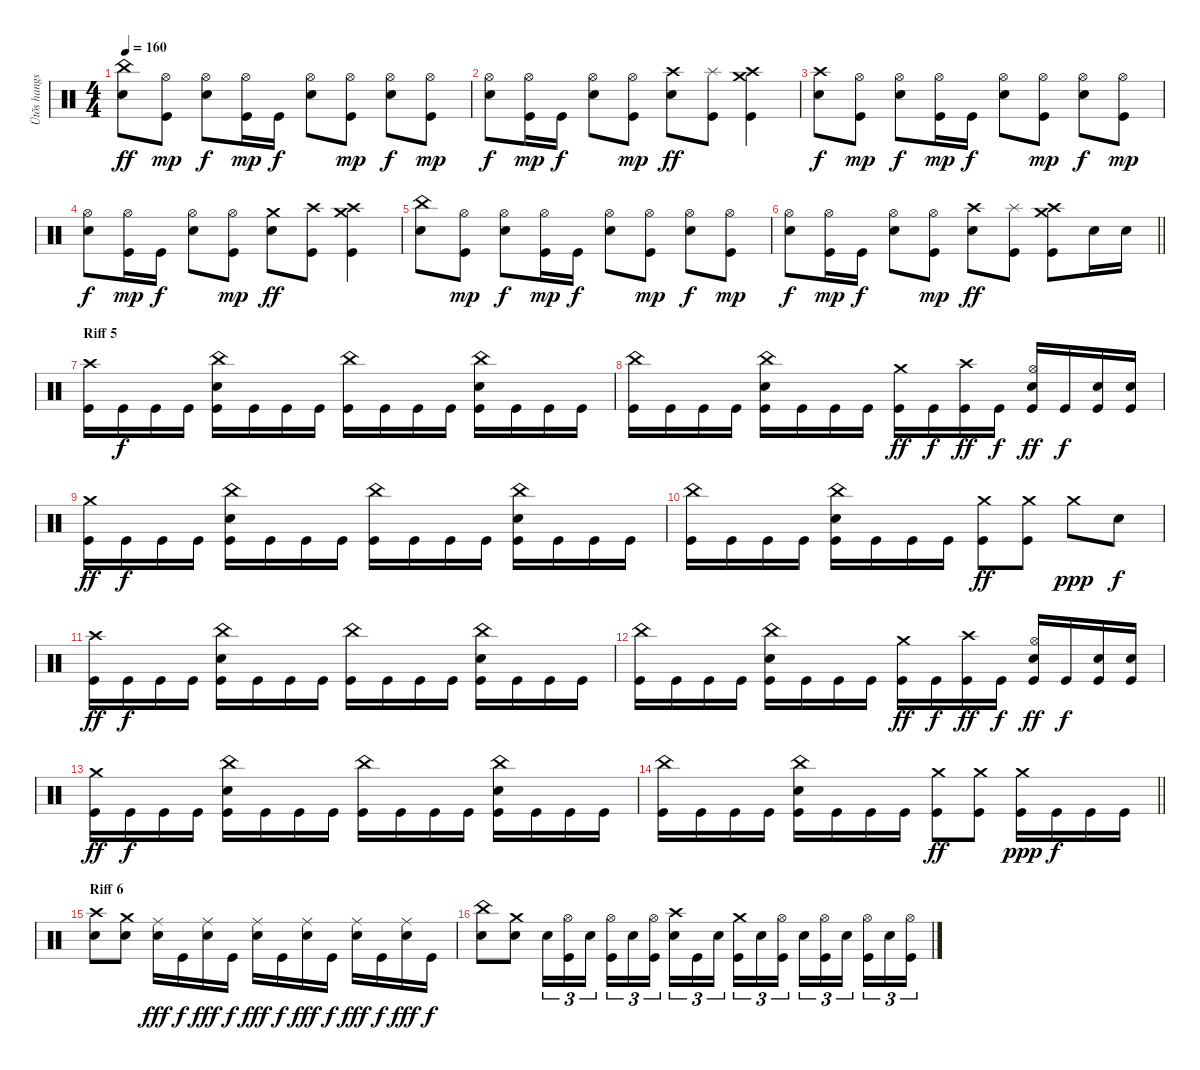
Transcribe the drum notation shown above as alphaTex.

\track ("Ütõs hangszer" "Ütõs hangs") {instrument percussion}
\staff {score}
\articulation defaults
\ts (4 4)
\tempo 160
\clef neutral
\ks c
("China (hit)" "Electric Snare (hit)").8{dy ff} ("Hi-Hat (open)" "Kick (hit)").8{dy mp} ("Hi-Hat (open)" "Electric Snare (hit)").8{dy f} ("Hi-Hat (open)" "Kick (hit)").16{dy mp} "Kick (hit)".16{dy f} ("Hi-Hat (open)" "Electric Snare (hit)").8 ("Hi-Hat (open)" "Kick (hit)").8{dy mp} ("Hi-Hat (open)" "Electric Snare (hit)").8{dy f} ("Hi-Hat (open)" "Kick (hit)").8{dy mp} |
("Hi-Hat (open)" "Electric Snare (hit)").8{dy f} ("Hi-Hat (open)" "Kick (hit)").16{dy mp} "Kick (hit)".16{dy f} ("Hi-Hat (open)" "Electric Snare (hit)").8 ("Hi-Hat (open)" "Kick (hit)").8{dy mp} ("Crash high (hit)" "Electric Snare (hit)").8{dy ff} ("Splash (hit)" "Kick (hit)").8 ("Crash medium (hit)" "Crash high (hit)" "Kick (hit)").4 |
("Crash high (hit)" "Electric Snare (hit)").8{dy f} ("Hi-Hat (open)" "Kick (hit)").8{dy mp} ("Hi-Hat (open)" "Electric Snare (hit)").8{dy f} ("Hi-Hat (open)" "Kick (hit)").16{dy mp} "Kick (hit)".16{dy f} ("Hi-Hat (open)" "Electric Snare (hit)").8 ("Hi-Hat (open)" "Kick (hit)").8{dy mp} ("Hi-Hat (open)" "Electric Snare (hit)").8{dy f} ("Hi-Hat (open)" "Kick (hit)").8{dy mp} |
("Hi-Hat (open)" "Electric Snare (hit)").8{dy f} ("Hi-Hat (open)" "Kick (hit)").16{dy mp} "Kick (hit)".16{dy f} ("Hi-Hat (open)" "Electric Snare (hit)").8 ("Hi-Hat (open)" "Kick (hit)").8{dy mp} ("Crash medium (hit)" "Electric Snare (hit)").8{dy ff} ("Crash high (hit)" "Kick (hit)").8 ("Crash medium (hit)" "Crash high (hit)" "Kick (hit)").4 |
("China (hit)" "Electric Snare (hit)").8 ("Hi-Hat (open)" "Kick (hit)").8{dy mp} ("Hi-Hat (open)" "Electric Snare (hit)").8{dy f} ("Hi-Hat (open)" "Kick (hit)").16{dy mp} "Kick (hit)".16{dy f} ("Hi-Hat (open)" "Electric Snare (hit)").8 ("Hi-Hat (open)" "Kick (hit)").8{dy mp} ("Hi-Hat (open)" "Electric Snare (hit)").8{dy f} ("Hi-Hat (open)" "Kick (hit)").8{dy mp} |
\barLineRight lightlight
("Hi-Hat (open)" "Electric Snare (hit)").8{dy f} ("Hi-Hat (open)" "Kick (hit)").16{dy mp} "Kick (hit)".16{dy f} ("Hi-Hat (open)" "Electric Snare (hit)").8 ("Hi-Hat (open)" "Kick (hit)").8{dy mp} ("Crash high (hit)" "Electric Snare (hit)").8{dy ff} ("Splash (hit)" "Kick (hit)").8 ("Crash medium (hit)" "Crash high (hit)" "Kick (hit)").8 "Electric Snare (hit)".16 "Electric Snare (hit)".16 |
\section ("" "Riff 5")
("Crash high (hit)" "Kick (hit)").16 "Kick (hit)".16{dy f} "Kick (hit)".16 "Kick (hit)".16 ("China (hit)" "Electric Snare (hit)" "Kick (hit)").16 "Kick (hit)".16 "Kick (hit)".16 "Kick (hit)".16 ("China (hit)" "Kick (hit)").16 "Kick (hit)".16 "Kick (hit)".16 "Kick (hit)".16 ("China (hit)" "Electric Snare (hit)" "Kick (hit)").16 "Kick (hit)".16 "Kick (hit)".16 "Kick (hit)".16 |
("China (hit)" "Kick (hit)").16 "Kick (hit)".16 "Kick (hit)".16 "Kick (hit)".16 ("China (hit)" "Electric Snare (hit)" "Kick (hit)").16 "Kick (hit)".16 "Kick (hit)".16 "Kick (hit)".16 ("Crash medium (hit)" "Kick (hit)").16{dy ff} "Kick (hit)".16{dy f} ("Crash high (hit)" "Kick (hit)").16{dy ff} "Kick (hit)".16{dy f} ("Hi-Hat (open)" "Electric Snare (hit)" "Kick (hit)").16{dy ff} "Kick (hit)".16{dy f} ("Electric Snare (hit)" "Kick (hit)").16 ("Electric Snare (hit)" "Kick (hit)").16 |
("Crash medium (hit)" "Kick (hit)").16{dy ff} "Kick (hit)".16{dy f} "Kick (hit)".16 "Kick (hit)".16 ("China (hit)" "Electric Snare (hit)" "Kick (hit)").16 "Kick (hit)".16 "Kick (hit)".16 "Kick (hit)".16 ("China (hit)" "Kick (hit)").16 "Kick (hit)".16 "Kick (hit)".16 "Kick (hit)".16 ("China (hit)" "Electric Snare (hit)" "Kick (hit)").16 "Kick (hit)".16 "Kick (hit)".16 "Kick (hit)".16 |
("China (hit)" "Kick (hit)").16 "Kick (hit)".16 "Kick (hit)".16 "Kick (hit)".16 ("China (hit)" "Electric Snare (hit)" "Kick (hit)").16 "Kick (hit)".16 "Kick (hit)".16 "Kick (hit)".16 ("Crash medium (hit)" "Kick (hit)").8{dy ff} ("Crash medium (hit)" "Kick (hit)").8 "Crash medium (hit)".8{dy ppp} "Electric Snare (hit)".8{dy f} |
("Crash high (hit)" "Kick (hit)").16{dy ff} "Kick (hit)".16{dy f} "Kick (hit)".16 "Kick (hit)".16 ("China (hit)" "Electric Snare (hit)" "Kick (hit)").16 "Kick (hit)".16 "Kick (hit)".16 "Kick (hit)".16 ("China (hit)" "Kick (hit)").16 "Kick (hit)".16 "Kick (hit)".16 "Kick (hit)".16 ("China (hit)" "Electric Snare (hit)" "Kick (hit)").16 "Kick (hit)".16 "Kick (hit)".16 "Kick (hit)".16 |
("China (hit)" "Kick (hit)").16 "Kick (hit)".16 "Kick (hit)".16 "Kick (hit)".16 ("China (hit)" "Electric Snare (hit)" "Kick (hit)").16 "Kick (hit)".16 "Kick (hit)".16 "Kick (hit)".16 ("Crash medium (hit)" "Kick (hit)").16{dy ff} "Kick (hit)".16{dy f} ("Crash high (hit)" "Kick (hit)").16{dy ff} "Kick (hit)".16{dy f} ("Hi-Hat (open)" "Electric Snare (hit)" "Kick (hit)").16{dy ff} "Kick (hit)".16{dy f} ("Electric Snare (hit)" "Kick (hit)").16 ("Electric Snare (hit)" "Kick (hit)").16 |
("Crash medium (hit)" "Kick (hit)").16{dy ff} "Kick (hit)".16{dy f} "Kick (hit)".16 "Kick (hit)".16 ("China (hit)" "Electric Snare (hit)" "Kick (hit)").16 "Kick (hit)".16 "Kick (hit)".16 "Kick (hit)".16 ("China (hit)" "Kick (hit)").16 "Kick (hit)".16 "Kick (hit)".16 "Kick (hit)".16 ("China (hit)" "Electric Snare (hit)" "Kick (hit)").16 "Kick (hit)".16 "Kick (hit)".16 "Kick (hit)".16 |
\barLineRight lightlight
("China (hit)" "Kick (hit)").16 "Kick (hit)".16 "Kick (hit)".16 "Kick (hit)".16 ("China (hit)" "Electric Snare (hit)" "Kick (hit)").16 "Kick (hit)".16 "Kick (hit)".16 "Kick (hit)".16 ("Crash medium (hit)" "Kick (hit)").8{dy ff} ("Crash medium (hit)" "Kick (hit)").8 ("Crash medium (hit)" "Kick (hit)").16{dy ppp} "Kick (hit)".16{dy f} "Kick (hit)".16 "Kick (hit)".16 |
\section ("" "Riff 6")
("Crash high (hit)" "Electric Snare (hit)").8 ("Crash medium (hit)" "Electric Snare (hit)").8 ("Ride (middle)" "Electric Snare (hit)").16{dy fff} "Kick (hit)".16{dy f} ("Ride (middle)" "Electric Snare (hit)").16{dy fff} "Kick (hit)".16{dy f} ("Ride (middle)" "Electric Snare (hit)").16{dy fff} "Kick (hit)".16{dy f} ("Ride (middle)" "Electric Snare (hit)").16{dy fff} "Kick (hit)".16{dy f} ("Ride (middle)" "Electric Snare (hit)").16{dy fff} "Kick (hit)".16{dy f} ("Ride (middle)" "Electric Snare (hit)").16{dy fff} "Kick (hit)".16{dy f} |
("China (hit)" "Electric Snare (hit)").8 ("Crash medium (hit)" "Electric Snare (hit)").8 "Electric Snare (hit)".16{tu (3 2)} ("Hi-Hat (open)" "Kick (hit)").16{tu (3 2)} "Electric Snare (hit)".16{tu (3 2) beam splitsecondary} ("Hi-Hat (open)" "Kick (hit)").16{tu (3 2)} "Electric Snare (hit)".16{tu (3 2)} ("Hi-Hat (open)" "Kick (hit)").16{tu (3 2)} ("Crash high (hit)" "Electric Snare (hit)").16{tu (3 2)} "Kick (hit)".16{tu (3 2)} "Electric Snare (hit)".16{tu (3 2) beam splitsecondary} ("Crash medium (hit)" "Kick (hit)").16{tu (3 2)} "Electric Snare (hit)".16{tu (3 2)} ("Hi-Hat (open)" "Kick (hit)").16{tu (3 2)} "Electric Snare (hit)".16{tu (3 2)} ("Hi-Hat (open)" "Kick (hit)").16{tu (3 2)} "Electric Snare (hit)".16{tu (3 2) beam splitsecondary} ("Hi-Hat (open)" "Kick (hit)").16{tu (3 2)} "Electric Snare (hit)".16{tu (3 2)} ("Hi-Hat (open)" "Kick (hit)").16{tu (3 2)}
